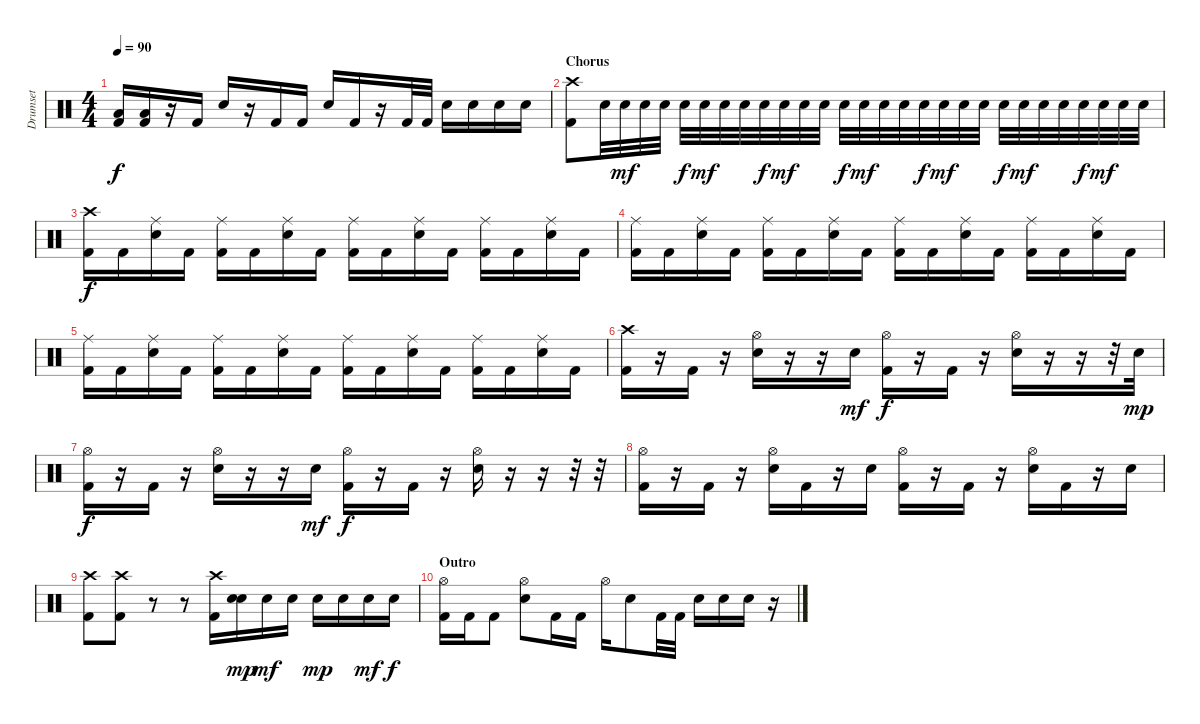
\track ("Drumset" "Drumset") {instrument percussion}
\staff {score}
\articulation defaults
\ts (4 4)
\tempo 90
\clef neutral
\ks c
("Low Floor Tom (hit)" "Kick (hit) 2").16{dy f} ("Low Floor Tom (hit)" "Kick (hit) 2").16 r.16 "Kick (hit) 2".16 "Electric Snare (hit)".16 r.16 "Kick (hit) 2".16 "Kick (hit) 2".16 "Electric Snare (hit)".16 "Kick (hit) 2".16 r.16 "Kick (hit) 2".32 "Kick (hit) 2".32 "Electric Snare (hit)".16 "Electric Snare (hit)".16 "Electric Snare (hit)".16 "Electric Snare (hit)".16 |
\section ("" "Chorus")
("Crash high (hit)" "Kick (hit) 2").8 "Electric Snare (hit)".32 "Electric Snare (hit)".32{dy mf} "Electric Snare (hit)".32 "Electric Snare (hit)".32 "Electric Snare (hit)".32{dy f} "Electric Snare (hit)".32{dy mf} "Electric Snare (hit)".32 "Electric Snare (hit)".32 "Electric Snare (hit)".32{dy f} "Electric Snare (hit)".32{dy mf} "Electric Snare (hit)".32 "Electric Snare (hit)".32 "Electric Snare (hit)".32{dy f} "Electric Snare (hit)".32{dy mf} "Electric Snare (hit)".32 "Electric Snare (hit)".32 "Electric Snare (hit)".32{dy f} "Electric Snare (hit)".32{dy mf} "Electric Snare (hit)".32 "Electric Snare (hit)".32 "Electric Snare (hit)".32{dy f} "Electric Snare (hit)".32{dy mf} "Electric Snare (hit)".32 "Electric Snare (hit)".32 "Electric Snare (hit)".32{dy f} "Electric Snare (hit)".32{dy mf} "Electric Snare (hit)".32 "Electric Snare (hit)".32 |
("Crash high (hit)" "Kick (hit) 2").16{dy f} "Kick (hit) 2".16 ("Ride (middle)" "Electric Snare (hit)").16 "Kick (hit) 2".16 ("Ride (middle)" "Kick (hit) 2").16 "Kick (hit) 2".16 ("Ride (middle)" "Electric Snare (hit)").16 "Kick (hit) 2".16 ("Ride (middle)" "Kick (hit) 2").16 "Kick (hit) 2".16 ("Ride (middle)" "Electric Snare (hit)").16 "Kick (hit) 2".16 ("Ride (middle)" "Kick (hit) 2").16 "Kick (hit) 2".16 ("Ride (middle)" "Electric Snare (hit)").16 "Kick (hit) 2".16 |
("Ride (middle)" "Kick (hit) 2").16 "Kick (hit) 2".16 ("Ride (middle)" "Electric Snare (hit)").16 "Kick (hit) 2".16 ("Ride (middle)" "Kick (hit) 2").16 "Kick (hit) 2".16 ("Ride (middle)" "Electric Snare (hit)").16 "Kick (hit) 2".16 ("Ride (middle)" "Kick (hit) 2").16 "Kick (hit) 2".16 ("Ride (middle)" "Electric Snare (hit)").16 "Kick (hit) 2".16 ("Ride (middle)" "Kick (hit) 2").16 "Kick (hit) 2".16 ("Ride (middle)" "Electric Snare (hit)").16 "Kick (hit) 2".16 |
("Ride (middle)" "Kick (hit) 2").16 "Kick (hit) 2".16 ("Ride (middle)" "Electric Snare (hit)").16 "Kick (hit) 2".16 ("Ride (middle)" "Kick (hit) 2").16 "Kick (hit) 2".16 ("Ride (middle)" "Electric Snare (hit)").16 "Kick (hit) 2".16 ("Ride (middle)" "Kick (hit) 2").16 "Kick (hit) 2".16 ("Ride (middle)" "Electric Snare (hit)").16 "Kick (hit) 2".16 ("Ride (middle)" "Kick (hit) 2").16 "Kick (hit) 2".16 ("Ride (middle)" "Electric Snare (hit)").16 "Kick (hit) 2".16 |
("Crash high (hit)" "Kick (hit) 2").16 r.16 "Kick (hit) 2".16 r.16 ("Hi-Hat (open)" "Electric Snare (hit)").16 r.16 r.16 "Electric Snare (hit)".16{dy mf} ("Hi-Hat (open)" "Kick (hit) 2").16{dy f} r.16 "Kick (hit) 2".16 r.16 ("Hi-Hat (open)" "Electric Snare (hit)").16 r.16 r.16 r.32 "Electric Snare (hit)".32{dy mp} |
("Hi-Hat (open)" "Kick (hit) 2").16{dy f} r.16 "Kick (hit) 2".16 r.16 ("Hi-Hat (open)" "Electric Snare (hit)").16 r.16 r.16 "Electric Snare (hit)".16{dy mf} ("Hi-Hat (open)" "Kick (hit) 2").16{dy f} r.16 "Kick (hit) 2".16 r.16 ("Hi-Hat (open)" "Electric Snare (hit)").16 r.16 r.16 r.32 r.32 |
("Hi-Hat (open)" "Kick (hit) 2").16 r.16 "Kick (hit) 2".16 r.16 ("Hi-Hat (open)" "Electric Snare (hit)").16 "Kick (hit) 2".16 r.16 "Electric Snare (hit)".16 ("Hi-Hat (open)" "Kick (hit) 2").16 r.16 "Kick (hit) 2".16 r.16 ("Hi-Hat (open)" "Electric Snare (hit)").16 "Kick (hit) 2".16 r.16 "Electric Snare (hit)".16 |
("Crash high (hit)" "Kick (hit) 2").8 ("Crash high (hit)" "Kick (hit) 2").8 r.8 r.8 ("Crash high (hit)" "Kick (hit) 2").16 ("Electric Snare (hit)" "Electric Snare (hit)").16{bd 120 dy mp} "Electric Snare (hit)".16{dy mf} "Electric Snare (hit)".16 "Electric Snare (hit)".16{dy mp} "Electric Snare (hit)".16 "Electric Snare (hit)".16{dy mf} "Electric Snare (hit)".16{dy f} |
\section ("" "Outro")
("Hi-Hat (open)" "Kick (hit) 2").16 "Kick (hit) 2".16 "Kick (hit) 2".8 ("Hi-Hat (open)" "Electric Snare (hit)").8 "Kick (hit) 2".16 "Kick (hit) 2".16 "Hi-Hat (open)".16 "Electric Snare (hit)".8 "Kick (hit) 2".32 "Kick (hit) 2".32 "Electric Snare (hit)".16 "Electric Snare (hit)".16 "Electric Snare (hit)".16 r.16
